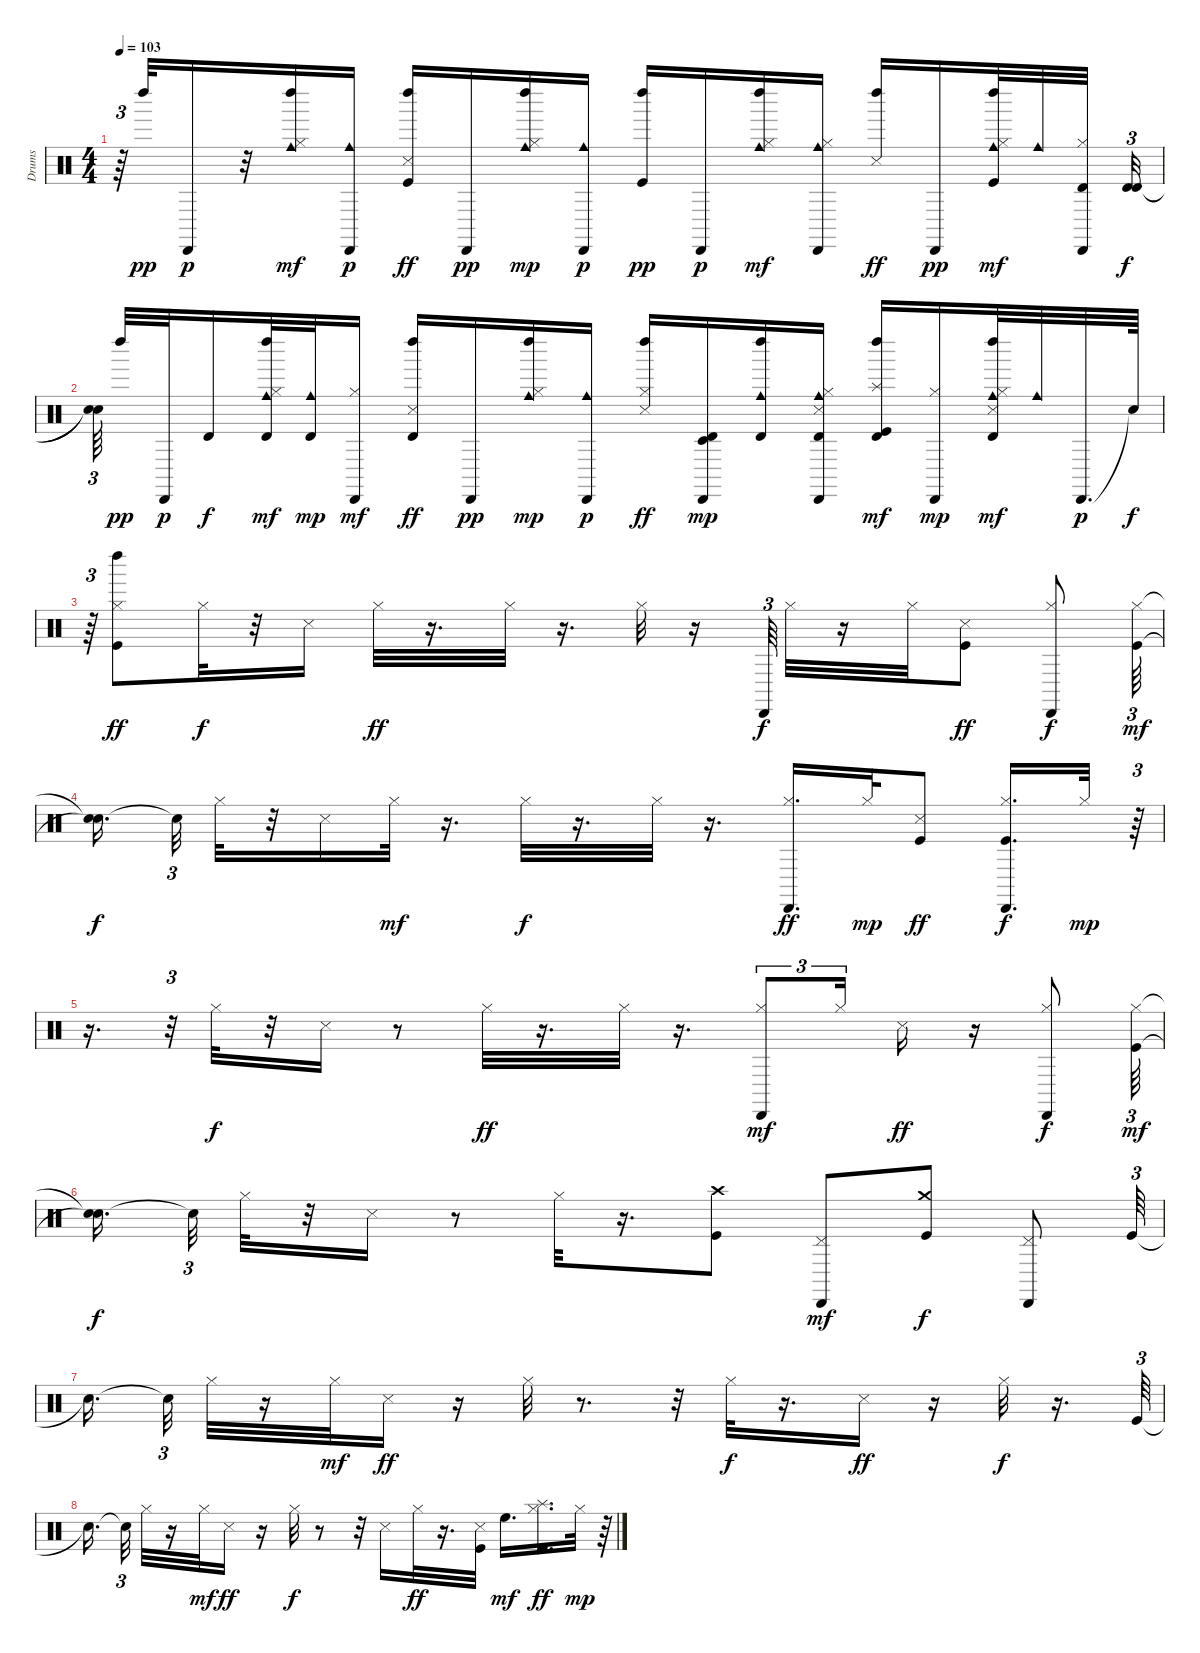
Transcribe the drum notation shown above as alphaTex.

\track ("Drums" "Drums") {instrument percussion}
\staff {score}
\articulation defaults
\ts (4 4)
\tempo 103
\clef neutral
\ks c
r.64{tu (3 2) dy f} "Left Maraca (hit)".32{dy pp} "Cabasa (hit)".16{dy p} r.32 ("Left Maraca (hit)" "Hi-Hat (closed)" "Cowbell medium (hit)").16{dy mf} ("Cowbell medium (hit)" "Cabasa (hit)").16{dy p} ("Left Maraca (hit)" "Kick (hit)" "Snare (side stick) 3").16{dy ff} "Cabasa (hit)".16{dy pp} ("Left Maraca (hit)" "Hi-Hat (closed)" "Cowbell medium (hit)").16{dy mp} ("Cowbell medium (hit)" "Cabasa (hit)").16{dy p} ("Left Maraca (hit)" "Kick (hit)").16{dy pp} "Cabasa (hit)".16{dy p} ("Left Maraca (hit)" "Hi-Hat (closed)" "Cowbell medium (hit)").16{dy mf} ("Cowbell medium (hit)" "Cabasa (hit)" "Hi-Hat (closed)").16 ("Left Maraca (hit)" "Snare (side stick) 3").16{dy ff} "Cabasa (hit)".16{dy pp} ("Left Maraca (hit)" "Kick (hit)" "Hi-Hat (closed)" "Cowbell medium (hit)").32{dy mf} "Cowbell medium (hit)".32 ("Cabasa (hit)" "Timbale high (hit)" "Hi-Hat (closed)").32{beam splitsecondary} ("Timbale high (hit)" "Timbale high (hit)").32{tu (3 2) dy f} |
("Snare (hit)"{t} "Snare (hit)"{t}).64{tu (3 2) beam splitsecondary} "Left Maraca (hit)".32{dy pp} "Cabasa (hit)".32{dy p} "Timbale high (hit)".16{dy f} ("Timbale high (hit)" "Left Maraca (hit)" "Hi-Hat (closed)" "Cowbell medium (hit)").32{dy mf} ("Timbale high (hit)" "Cowbell medium (hit)").32{dy mp} ("Cabasa (hit)" "Hi-Hat (closed)").16{dy mf} ("Timbale high (hit)" "Left Maraca (hit)" "Snare (side stick) 3").16{dy ff} "Cabasa (hit)".16{dy pp} ("Left Maraca (hit)" "Hi-Hat (closed)" "Cowbell medium (hit)").16{dy mp} ("Cowbell medium (hit)" "Cabasa (hit)").16{dy p} ("Left Maraca (hit)" "Snare (side stick) 3" "Hi-Hat (closed)").16{dy ff} ("Cabasa (hit)" "Timbale low (hit)" "Timbale high (hit)").16{dy mp} ("Left Maraca (hit)" "Cowbell medium (hit)" "Timbale high (hit)").16 ("Cowbell medium (hit)" "Cabasa (hit)" "Timbale high (hit)" "Snare (side stick) 3" "Hi-Hat (closed)").16 ("Left Maraca (hit)" "Splash (hit)" "Kick (hit)" "Timbale high (hit)").16{dy mf} ("Cabasa (hit)" "Hi-Hat (closed)").16{dy mp} ("Left Maraca (hit)" "Snare (side stick) 3" "Hi-Hat (closed)" "Cowbell medium (hit)" "Timbale high (hit)").32{dy mf} "Cowbell medium (hit)".32 "Cabasa (hit)".32{d dy p} "Snare (hit)"{t}.64{dy f} |
r.64{tu (3 2)} ("Left Maraca (hit)" "Kick (hit)" "Hi-Hat (closed)").8{dy ff} "Hi-Hat (closed)".32{dy f} r.32 "Snare (side stick) 3".16 "Hi-Hat (closed)".32{dy ff} r.16{d} "Hi-Hat (closed)".32 r.16{d} "Hi-Hat (closed)".32 r.16 "Cabasa (hit)".64{tu (3 2) dy f} "Hi-Hat (closed)".32 r.16 "Hi-Hat (closed)".32 ("Kick (hit)" "Snare (side stick) 3").8{dy ff} ("Cabasa (hit)" "Hi-Hat (closed)").8{dy f} ("Kick (hit)" "Hi-Hat (closed)").64{tu (3 2) dy mf} |
("Snare (hit)"{t} "Snare (hit)"{t}).16{d dy f beam splitsecondary} "Snare (hit)"{t}.32{tu (3 2)} "Hi-Hat (closed)".32 r.32 "Snare (side stick) 3".16 "Hi-Hat (closed)".32{dy mf} r.16{d} "Hi-Hat (closed)".32{dy f} r.16{d} "Hi-Hat (closed)".32 r.16{d} ("Cabasa (hit)" "Hi-Hat (closed)").16{d dy ff} "Hi-Hat (closed)".32{dy mp} ("Kick (hit)" "Snare (side stick) 3").8{dy ff} ("Cabasa (hit)" "Kick (hit)" "Hi-Hat (closed)").16{d dy f} "Hi-Hat (closed)".32{dy mp} r.64{tu (3 2)} |
r.16{d} r.32{tu (3 2)} "Hi-Hat (closed)".32{dy f} r.32 "Snare (side stick) 3".16 r.8 "Hi-Hat (closed)".32{dy ff} r.16{d} "Hi-Hat (closed)".32 r.16{d} ("Cabasa (hit)" "Hi-Hat (closed)").8{tu (3 2) dy mf} "Hi-Hat (closed)".16{tu (3 2)} "Snare (side stick) 3".16{dy ff} r.16 ("Hi-Hat (closed)" "Cabasa (hit)").8{dy f} ("Kick (hit)" "Hi-Hat (closed)").64{tu (3 2) dy mf} |
("Snare (hit)"{t} "Snare (hit)"{t}).16{d dy f beam splitsecondary} "Snare (hit)"{t}.32{tu (3 2)} "Hi-Hat (closed)".32 r.32 "Snare (side stick) 3".16 r.8 "Hi-Hat (closed)".32 r.16{d} ("Crash high (hit)" "Kick (hit)").8 ("Cabasa (hit)" "Pedal Hi-Hat (hit)").8{dy mf} ("Crash medium (hit)" "Kick (hit)").8{dy f} ("Pedal Hi-Hat (hit)" "Cabasa (hit)").8 "Kick (hit)".64{tu (3 2)} |
"Snare (hit)"{t}.16{d beam splitsecondary} "Snare (hit)"{t}.32{tu (3 2)} "Hi-Hat (closed)".32 r.16 "Hi-Hat (closed)".32{dy mf} "Snare (side stick) 3".16{dy ff} r.16 "Hi-Hat (closed)".32 r.8{d} r.32 "Hi-Hat (closed)".32{dy f} r.16{d} "Snare (side stick) 3".16{dy ff} r.16 "Hi-Hat (closed)".32{dy f} r.16{d} "Kick (hit)".64{tu (3 2)} |
"Snare (hit)"{t}.16{d beam splitsecondary} "Snare (hit)"{t}.32{tu (3 2)} "Hi-Hat (closed)".32 r.16 "Hi-Hat (closed)".32{dy mf} "Snare (side stick) 3".16{dy ff} r.16 "Hi-Hat (closed)".32{dy f} r.8 r.32 "Snare (side stick) 3".16 "Hi-Hat (closed)".32{dy ff} r.16{d} ("Kick (hit)" "Snare (side stick) 3").32 "High Floor Tom (hit)".16{d dy mf} ("Splash (hit)" "Kick (hit)" "Hi-Hat (closed)").16{d dy ff} "Hi-Hat (closed)".32{dy mp} r.64{tu (3 2)}
